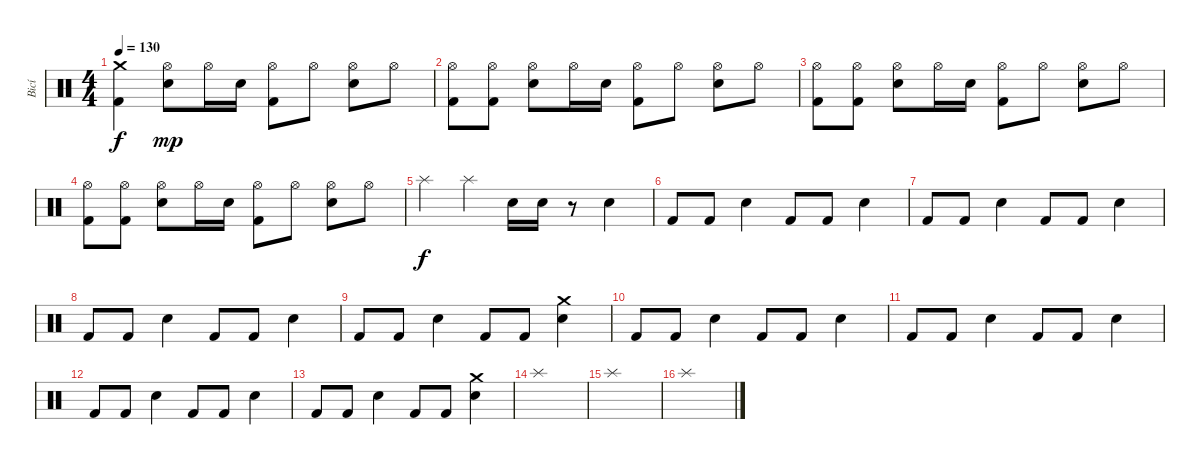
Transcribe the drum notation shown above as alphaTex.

\track ("Bicí" "Bicí") {instrument percussion}
\staff {score}
\articulation defaults
\ts (4 4)
\tempo 130
\clef neutral
\ks c
("Crash medium (hit)" "Kick (hit) 2").4{dy f} ("Hi-Hat (open)" "Electric Snare (hit)").8{dy mp} "Hi-Hat (open)".16 "Electric Snare (hit)".16 ("Hi-Hat (open)" "Kick (hit) 2").8 "Hi-Hat (open)".8 ("Hi-Hat (open)" "Electric Snare (hit)").8 "Hi-Hat (open)".8 |
("Hi-Hat (open)" "Kick (hit) 2").8 ("Hi-Hat (open)" "Kick (hit) 2").8 ("Hi-Hat (open)" "Electric Snare (hit)").8 "Hi-Hat (open)".16 "Electric Snare (hit)".16 ("Hi-Hat (open)" "Kick (hit) 2").8 "Hi-Hat (open)".8 ("Hi-Hat (open)" "Electric Snare (hit)").8 "Hi-Hat (open)".8 |
("Hi-Hat (open)" "Kick (hit) 2").8 ("Hi-Hat (open)" "Kick (hit) 2").8 ("Hi-Hat (open)" "Electric Snare (hit)").8 "Hi-Hat (open)".16 "Electric Snare (hit)".16 ("Hi-Hat (open)" "Kick (hit) 2").8 "Hi-Hat (open)".8 ("Hi-Hat (open)" "Electric Snare (hit)").8 "Hi-Hat (open)".8 |
("Hi-Hat (open)" "Kick (hit) 2").8 ("Hi-Hat (open)" "Kick (hit) 2").8 ("Hi-Hat (open)" "Electric Snare (hit)").8 "Hi-Hat (open)".16 "Electric Snare (hit)".16 ("Hi-Hat (open)" "Kick (hit) 2").8 "Hi-Hat (open)".8 ("Hi-Hat (open)" "Electric Snare (hit)").8 "Hi-Hat (open)".8 |
"Splash (hit)".4{dy f} "Splash (hit)".4 "Electric Snare (hit)".16 "Electric Snare (hit)".16 r.8 "Electric Snare (hit)".4 |
"Kick (hit) 2".8 "Kick (hit) 2".8 "Electric Snare (hit)".4 "Kick (hit) 2".8 "Kick (hit) 2".8 "Electric Snare (hit)".4 |
"Kick (hit) 2".8 "Kick (hit) 2".8 "Electric Snare (hit)".4 "Kick (hit) 2".8 "Kick (hit) 2".8 "Electric Snare (hit)".4 |
"Kick (hit) 2".8 "Kick (hit) 2".8 "Electric Snare (hit)".4 "Kick (hit) 2".8 "Kick (hit) 2".8 "Electric Snare (hit)".4 |
"Kick (hit) 2".8 "Kick (hit) 2".8 "Electric Snare (hit)".4 "Kick (hit) 2".8 "Kick (hit) 2".8 ("Electric Snare (hit)" "Crash medium (hit)").4 |
"Kick (hit) 2".8 "Kick (hit) 2".8 "Electric Snare (hit)".4 "Kick (hit) 2".8 "Kick (hit) 2".8 "Electric Snare (hit)".4 |
"Kick (hit) 2".8 "Kick (hit) 2".8 "Electric Snare (hit)".4 "Kick (hit) 2".8 "Kick (hit) 2".8 "Electric Snare (hit)".4 |
"Kick (hit) 2".8 "Kick (hit) 2".8 "Electric Snare (hit)".4 "Kick (hit) 2".8 "Kick (hit) 2".8 "Electric Snare (hit)".4 |
"Kick (hit) 2".8 "Kick (hit) 2".8 "Electric Snare (hit)".4 "Kick (hit) 2".8 "Kick (hit) 2".8 ("Electric Snare (hit)" "Crash medium (hit)").4 |
"Splash (hit)".1 |
"Splash (hit)".1 |
"Splash (hit)".1
